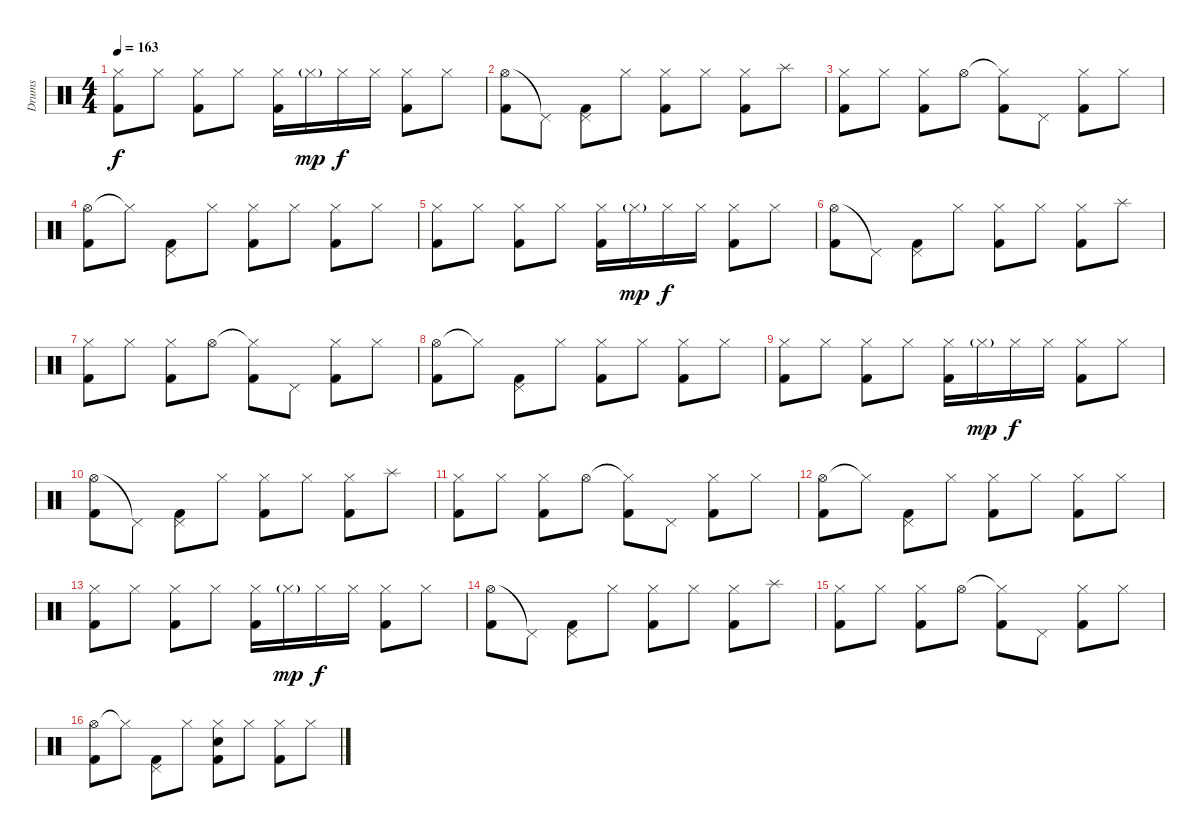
\track ("Drums" "Drums") {instrument percussion}
\staff {score}
\articulation defaults
\ts (4 4)
\tempo 163
\clef neutral
\ks c
("Hi-Hat (closed)" "Kick (hit) 2").8{dy f} "Hi-Hat (closed)".8 ("Hi-Hat (closed)" "Kick (hit) 2").8 "Hi-Hat (closed)".8 ("Hi-Hat (closed)" "Kick (hit) 2").16 "Hi-Hat (closed)"{g}.16{dy mp} "Hi-Hat (closed)".16{dy f} "Hi-Hat (closed)".16 ("Hi-Hat (closed)" "Kick (hit) 2").8 "Hi-Hat (closed)".8 |
("Hi-Hat (open)" "Kick (hit) 2").8 "Pedal Hi-Hat (hit)"{t}.8 ("Pedal Hi-Hat (hit)" "Kick (hit) 2").8 "Hi-Hat (closed)".8 ("Hi-Hat (closed)" "Kick (hit) 2").8 "Hi-Hat (closed)".8 ("Hi-Hat (closed)" "Kick (hit) 2").8 "Splash (hit)".8 |
("Hi-Hat (closed)" "Kick (hit) 2").8 "Hi-Hat (closed)".8 ("Hi-Hat (closed)" "Kick (hit) 2").8 "Hi-Hat (open)".8 ("Hi-Hat (closed)"{t} "Kick (hit) 2").8 "Pedal Hi-Hat (hit)".8 ("Hi-Hat (closed)" "Kick (hit) 2").8 "Hi-Hat (closed)".8 |
("Hi-Hat (open)" "Kick (hit) 2").8 "Hi-Hat (closed)"{t}.8 ("Pedal Hi-Hat (hit)" "Kick (hit) 2").8 "Hi-Hat (closed)".8 ("Hi-Hat (closed)" "Kick (hit) 2").8 "Hi-Hat (closed)".8 ("Hi-Hat (closed)" "Kick (hit) 2").8 "Hi-Hat (closed)".8 |
("Hi-Hat (closed)" "Kick (hit) 2").8 "Hi-Hat (closed)".8 ("Hi-Hat (closed)" "Kick (hit) 2").8 "Hi-Hat (closed)".8 ("Hi-Hat (closed)" "Kick (hit) 2").16 "Hi-Hat (closed)"{g}.16{dy mp} "Hi-Hat (closed)".16{dy f} "Hi-Hat (closed)".16 ("Hi-Hat (closed)" "Kick (hit) 2").8 "Hi-Hat (closed)".8 |
("Hi-Hat (open)" "Kick (hit) 2").8 "Pedal Hi-Hat (hit)"{t}.8 ("Pedal Hi-Hat (hit)" "Kick (hit) 2").8 "Hi-Hat (closed)".8 ("Hi-Hat (closed)" "Kick (hit) 2").8 "Hi-Hat (closed)".8 ("Hi-Hat (closed)" "Kick (hit) 2").8 "Splash (hit)".8 |
("Hi-Hat (closed)" "Kick (hit) 2").8 "Hi-Hat (closed)".8 ("Hi-Hat (closed)" "Kick (hit) 2").8 "Hi-Hat (open)".8 ("Hi-Hat (closed)"{t} "Kick (hit) 2").8 "Pedal Hi-Hat (hit)".8 ("Hi-Hat (closed)" "Kick (hit) 2").8 "Hi-Hat (closed)".8 |
("Hi-Hat (open)" "Kick (hit) 2").8 "Hi-Hat (closed)"{t}.8 ("Pedal Hi-Hat (hit)" "Kick (hit) 2").8 "Hi-Hat (closed)".8 ("Hi-Hat (closed)" "Kick (hit) 2").8 "Hi-Hat (closed)".8 ("Hi-Hat (closed)" "Kick (hit) 2").8 "Hi-Hat (closed)".8 |
("Hi-Hat (closed)" "Kick (hit) 2").8 "Hi-Hat (closed)".8 ("Hi-Hat (closed)" "Kick (hit) 2").8 "Hi-Hat (closed)".8 ("Hi-Hat (closed)" "Kick (hit) 2").16 "Hi-Hat (closed)"{g}.16{dy mp} "Hi-Hat (closed)".16{dy f} "Hi-Hat (closed)".16 ("Hi-Hat (closed)" "Kick (hit) 2").8 "Hi-Hat (closed)".8 |
("Hi-Hat (open)" "Kick (hit) 2").8 "Pedal Hi-Hat (hit)"{t}.8 ("Pedal Hi-Hat (hit)" "Kick (hit) 2").8 "Hi-Hat (closed)".8 ("Hi-Hat (closed)" "Kick (hit) 2").8 "Hi-Hat (closed)".8 ("Hi-Hat (closed)" "Kick (hit) 2").8 "Splash (hit)".8 |
("Hi-Hat (closed)" "Kick (hit) 2").8 "Hi-Hat (closed)".8 ("Hi-Hat (closed)" "Kick (hit) 2").8 "Hi-Hat (open)".8 ("Hi-Hat (closed)"{t} "Kick (hit) 2").8 "Pedal Hi-Hat (hit)".8 ("Hi-Hat (closed)" "Kick (hit) 2").8 "Hi-Hat (closed)".8 |
("Hi-Hat (open)" "Kick (hit) 2").8 "Hi-Hat (closed)"{t}.8 ("Pedal Hi-Hat (hit)" "Kick (hit) 2").8 "Hi-Hat (closed)".8 ("Hi-Hat (closed)" "Kick (hit) 2").8 "Hi-Hat (closed)".8 ("Hi-Hat (closed)" "Kick (hit) 2").8 "Hi-Hat (closed)".8 |
("Hi-Hat (closed)" "Kick (hit) 2").8 "Hi-Hat (closed)".8 ("Hi-Hat (closed)" "Kick (hit) 2").8 "Hi-Hat (closed)".8 ("Hi-Hat (closed)" "Kick (hit) 2").16 "Hi-Hat (closed)"{g}.16{dy mp} "Hi-Hat (closed)".16{dy f} "Hi-Hat (closed)".16 ("Hi-Hat (closed)" "Kick (hit) 2").8 "Hi-Hat (closed)".8 |
("Hi-Hat (open)" "Kick (hit) 2").8 "Pedal Hi-Hat (hit)"{t}.8 ("Pedal Hi-Hat (hit)" "Kick (hit) 2").8 "Hi-Hat (closed)".8 ("Hi-Hat (closed)" "Kick (hit) 2").8 "Hi-Hat (closed)".8 ("Hi-Hat (closed)" "Kick (hit) 2").8 "Splash (hit)".8 |
("Hi-Hat (closed)" "Kick (hit) 2").8 "Hi-Hat (closed)".8 ("Hi-Hat (closed)" "Kick (hit) 2").8 "Hi-Hat (open)".8 ("Hi-Hat (closed)"{t} "Kick (hit) 2").8 "Pedal Hi-Hat (hit)".8 ("Hi-Hat (closed)" "Kick (hit) 2").8 "Hi-Hat (closed)".8 |
("Hi-Hat (open)" "Kick (hit) 2").8 "Hi-Hat (closed)"{t}.8 ("Pedal Hi-Hat (hit)" "Kick (hit) 2").8 "Hi-Hat (closed)".8 ("Hi-Hat (closed)" "Electric Snare (hit)" "Kick (hit) 2").8 "Hi-Hat (closed)".8 ("Hi-Hat (closed)" "Kick (hit) 2").8 "Hi-Hat (closed)".8
